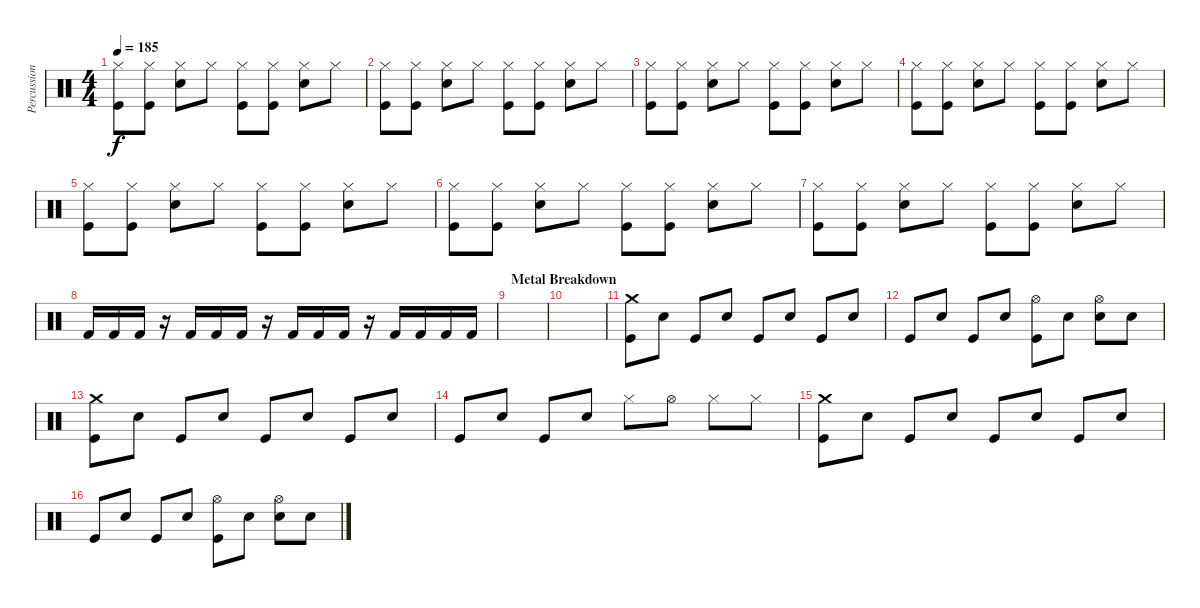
\track ("Percussion" "Percussion") {instrument percussion}
\staff {score}
\articulation defaults
\ts (4 4)
\tempo 185
\clef neutral
\ks c
("Hi-Hat (closed)" "Kick (hit)").8{dy f} ("Hi-Hat (closed)" "Kick (hit)").8 ("Hi-Hat (closed)" "Snare (hit) 2").8 "Hi-Hat (closed)".8 ("Hi-Hat (closed)" "Kick (hit)").8 ("Hi-Hat (closed)" "Kick (hit)").8 ("Hi-Hat (closed)" "Snare (hit) 2").8 "Hi-Hat (closed)".8 |
("Hi-Hat (closed)" "Kick (hit)").8 ("Hi-Hat (closed)" "Kick (hit)").8 ("Hi-Hat (closed)" "Snare (hit) 2").8 "Hi-Hat (closed)".8 ("Hi-Hat (closed)" "Kick (hit)").8 ("Hi-Hat (closed)" "Kick (hit)").8 ("Hi-Hat (closed)" "Snare (hit) 2").8 "Hi-Hat (closed)".8 |
("Hi-Hat (closed)" "Kick (hit)").8 ("Hi-Hat (closed)" "Kick (hit)").8 ("Hi-Hat (closed)" "Snare (hit) 2").8 "Hi-Hat (closed)".8 ("Hi-Hat (closed)" "Kick (hit)").8 ("Hi-Hat (closed)" "Kick (hit)").8 ("Hi-Hat (closed)" "Snare (hit) 2").8 "Hi-Hat (closed)".8 |
("Hi-Hat (closed)" "Kick (hit)").8 ("Hi-Hat (closed)" "Kick (hit)").8 ("Hi-Hat (closed)" "Snare (hit) 2").8 "Hi-Hat (closed)".8 ("Hi-Hat (closed)" "Kick (hit)").8 ("Hi-Hat (closed)" "Kick (hit)").8 ("Hi-Hat (closed)" "Snare (hit) 2").8 "Hi-Hat (closed)".8 |
("Hi-Hat (closed)" "Kick (hit)").8 ("Hi-Hat (closed)" "Kick (hit)").8 ("Hi-Hat (closed)" "Snare (hit) 2").8 "Hi-Hat (closed)".8 ("Hi-Hat (closed)" "Kick (hit)").8 ("Hi-Hat (closed)" "Kick (hit)").8 ("Hi-Hat (closed)" "Snare (hit) 2").8 "Hi-Hat (closed)".8 |
("Hi-Hat (closed)" "Kick (hit)").8 ("Hi-Hat (closed)" "Kick (hit)").8 ("Hi-Hat (closed)" "Snare (hit) 2").8 "Hi-Hat (closed)".8 ("Hi-Hat (closed)" "Kick (hit)").8 ("Hi-Hat (closed)" "Kick (hit)").8 ("Hi-Hat (closed)" "Snare (hit) 2").8 "Hi-Hat (closed)".8 |
("Hi-Hat (closed)" "Kick (hit)").8 ("Hi-Hat (closed)" "Kick (hit)").8 ("Hi-Hat (closed)" "Snare (hit) 2").8 "Hi-Hat (closed)".8 ("Hi-Hat (closed)" "Kick (hit)").8 ("Hi-Hat (closed)" "Kick (hit)").8 ("Hi-Hat (closed)" "Snare (hit) 2").8 "Hi-Hat (closed)".8 |
"Kick (hit) 2".16 "Kick (hit) 2".16 "Kick (hit) 2".16 r.16 "Kick (hit) 2".16 "Kick (hit) 2".16 "Kick (hit) 2".16 r.16 "Kick (hit) 2".16 "Kick (hit) 2".16 "Kick (hit) 2".16 r.16 "Kick (hit) 2".16 "Kick (hit) 2".16 "Kick (hit) 2".16 "Kick (hit) 2".16 |
\section ("" "Metal Breakdown")
|
|
("Crash medium (hit)" "Kick (hit)").8 "Snare (hit) 2".8 "Kick (hit)".8 "Snare (hit) 2".8 "Kick (hit)".8 "Snare (hit) 2".8 "Kick (hit)".8 "Snare (hit) 2".8 |
"Kick (hit)".8 "Snare (hit) 2".8 "Kick (hit)".8 "Snare (hit) 2".8 ("Hi-Hat (open)" "Kick (hit)").8 "Snare (hit) 2".8 ("Hi-Hat (open)" "Snare (hit) 2").8 "Snare (hit) 2".8 |
("Crash medium (hit)" "Kick (hit)").8 "Snare (hit) 2".8 "Kick (hit)".8 "Snare (hit) 2".8 "Kick (hit)".8 "Snare (hit) 2".8 "Kick (hit)".8 "Snare (hit) 2".8 |
"Kick (hit)".8 "Snare (hit) 2".8 "Kick (hit)".8 "Snare (hit) 2".8 "Hi-Hat (closed)".8 "Hi-Hat (open)".8 "Hi-Hat (closed)".8 "Hi-Hat (closed)".8 |
("Crash medium (hit)" "Kick (hit)").8 "Snare (hit) 2".8 "Kick (hit)".8 "Snare (hit) 2".8 "Kick (hit)".8 "Snare (hit) 2".8 "Kick (hit)".8 "Snare (hit) 2".8 |
"Kick (hit)".8 "Snare (hit) 2".8 "Kick (hit)".8 "Snare (hit) 2".8 ("Hi-Hat (open)" "Kick (hit)").8 "Snare (hit) 2".8 ("Hi-Hat (open)" "Snare (hit) 2").8 "Snare (hit) 2".8
